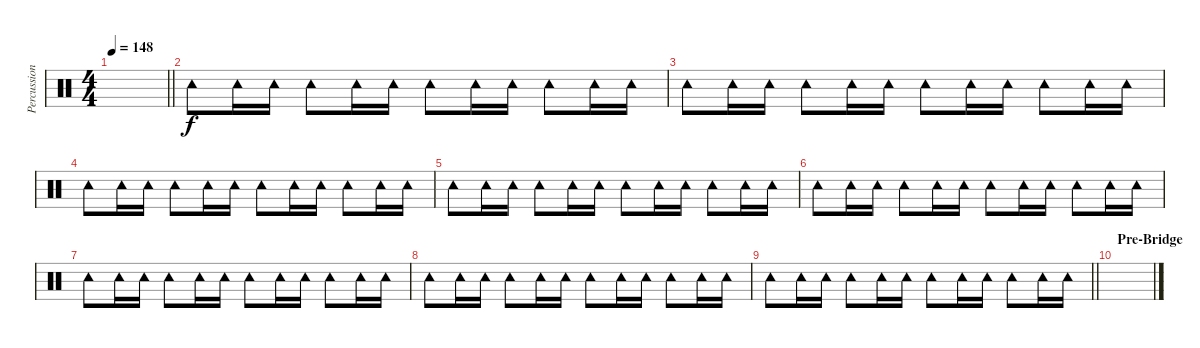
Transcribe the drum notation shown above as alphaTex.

\track ("Percussion" "Percussion") {instrument percussion}
\staff {score}
\articulation defaults
\ts (4 4)
\tempo 148
\clef neutral
\barLineRight lightlight
\ks c
|
"Tambourine (hit)".8 "Tambourine (hit)".16 "Tambourine (hit)".16 "Tambourine (hit)".8 "Tambourine (hit)".16 "Tambourine (hit)".16 "Tambourine (hit)".8 "Tambourine (hit)".16 "Tambourine (hit)".16 "Tambourine (hit)".8 "Tambourine (hit)".16 "Tambourine (hit)".16 |
"Tambourine (hit)".8 "Tambourine (hit)".16 "Tambourine (hit)".16 "Tambourine (hit)".8 "Tambourine (hit)".16 "Tambourine (hit)".16 "Tambourine (hit)".8 "Tambourine (hit)".16 "Tambourine (hit)".16 "Tambourine (hit)".8 "Tambourine (hit)".16 "Tambourine (hit)".16 |
"Tambourine (hit)".8 "Tambourine (hit)".16 "Tambourine (hit)".16 "Tambourine (hit)".8 "Tambourine (hit)".16 "Tambourine (hit)".16 "Tambourine (hit)".8 "Tambourine (hit)".16 "Tambourine (hit)".16 "Tambourine (hit)".8 "Tambourine (hit)".16 "Tambourine (hit)".16 |
"Tambourine (hit)".8 "Tambourine (hit)".16 "Tambourine (hit)".16 "Tambourine (hit)".8 "Tambourine (hit)".16 "Tambourine (hit)".16 "Tambourine (hit)".8 "Tambourine (hit)".16 "Tambourine (hit)".16 "Tambourine (hit)".8 "Tambourine (hit)".16 "Tambourine (hit)".16 |
"Tambourine (hit)".8 "Tambourine (hit)".16 "Tambourine (hit)".16 "Tambourine (hit)".8 "Tambourine (hit)".16 "Tambourine (hit)".16 "Tambourine (hit)".8 "Tambourine (hit)".16 "Tambourine (hit)".16 "Tambourine (hit)".8 "Tambourine (hit)".16 "Tambourine (hit)".16 |
"Tambourine (hit)".8 "Tambourine (hit)".16 "Tambourine (hit)".16 "Tambourine (hit)".8 "Tambourine (hit)".16 "Tambourine (hit)".16 "Tambourine (hit)".8 "Tambourine (hit)".16 "Tambourine (hit)".16 "Tambourine (hit)".8 "Tambourine (hit)".16 "Tambourine (hit)".16 |
"Tambourine (hit)".8 "Tambourine (hit)".16 "Tambourine (hit)".16 "Tambourine (hit)".8 "Tambourine (hit)".16 "Tambourine (hit)".16 "Tambourine (hit)".8 "Tambourine (hit)".16 "Tambourine (hit)".16 "Tambourine (hit)".8 "Tambourine (hit)".16 "Tambourine (hit)".16 |
\barLineRight lightlight "Tambourine (hit)".8 "Tambourine (hit)".16 "Tambourine (hit)".16 "Tambourine (hit)".8 "Tambourine (hit)".16 "Tambourine (hit)".16 "Tambourine (hit)".8 "Tambourine (hit)".16 "Tambourine (hit)".16 "Tambourine (hit)".8 "Tambourine (hit)".16 "Tambourine (hit)".16
|
\section ("" "Pre-Bridge")
